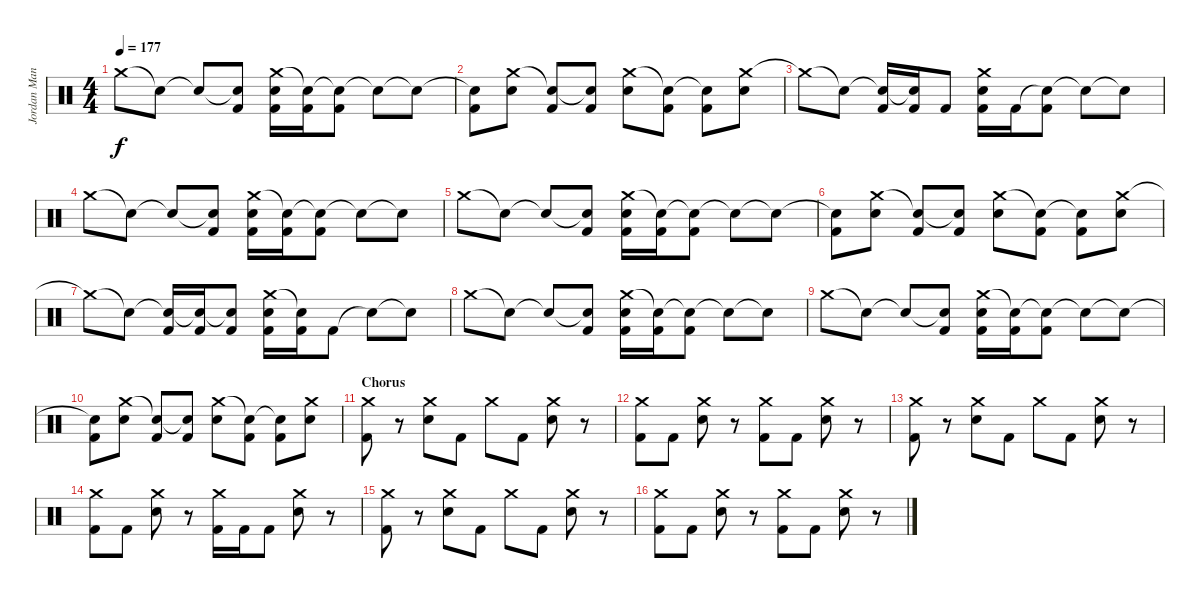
\track ("Jordan Mancino" "Jordan Man") {instrument percussion}
\staff {score}
\articulation defaults
\ts (4 4)
\tempo 177
\clef neutral
\ks c "Crash medium (hit)".8{dy f} "Snare (hit)"{t}.8 "Snare (hit)"{t}.8
("Snare (hit)"{t} "Kick (hit) 2").8 ("Crash medium (hit)" "Electric Snare (hit)" "Kick (hit) 2").16 ("Snare (hit)"{t} "Kick (hit) 2").16 ("Snare (hit)"{t} "Kick (hit) 2").8 "Snare (hit)"{t}.8 "Snare (hit)"{t}.8 |
("Snare (hit)"{t} "Kick (hit) 2").8 ("Crash medium (hit)" "Electric Snare (hit)").8 ("Snare (hit)"{t} "Kick (hit) 2").8 ("Snare (hit)"{t} "Kick (hit) 2").8 ("Crash medium (hit)" "Electric Snare (hit)").8 ("Snare (hit)"{t} "Kick (hit) 2").8 ("Snare (hit)"{t} "Kick (hit) 2").8 ("Crash medium (hit)" "Electric Snare (hit)").8 |
"Crash medium (hit)"{t}.8 "Snare (hit)"{t}.8 ("Snare (hit)"{t} "Kick (hit) 2").16 ("Snare (hit)"{t} "Kick (hit) 2").16 "Kick (hit) 2".8 ("Crash medium (hit)" "Electric Snare (hit)" "Kick (hit) 2").16 "Kick (hit) 2".16 ("Snare (hit)"{t} "Kick (hit) 2").8 "Snare (hit)"{t}.8 "Snare (hit)"{t}.8 |
"Crash medium (hit)".8 "Snare (hit)"{t}.8 "Snare (hit)"{t}.8 ("Snare (hit)"{t} "Kick (hit) 2").8 ("Crash medium (hit)" "Electric Snare (hit)" "Kick (hit) 2").16 ("Snare (hit)"{t} "Kick (hit) 2").16 ("Snare (hit)"{t} "Kick (hit) 2").8 "Snare (hit)"{t}.8 "Snare (hit)"{t}.8 |
"Crash medium (hit)".8 "Snare (hit)"{t}.8 "Snare (hit)"{t}.8 ("Snare (hit)"{t} "Kick (hit) 2").8 ("Crash medium (hit)" "Electric Snare (hit)" "Kick (hit) 2").16 ("Snare (hit)"{t} "Kick (hit) 2").16 ("Snare (hit)"{t} "Kick (hit) 2").8 "Snare (hit)"{t}.8 "Snare (hit)"{t}.8 |
("Snare (hit)"{t} "Kick (hit) 2").8 ("Crash medium (hit)" "Electric Snare (hit)").8 ("Snare (hit)"{t} "Kick (hit) 2").8 ("Snare (hit)"{t} "Kick (hit) 2").8 ("Crash medium (hit)" "Electric Snare (hit)").8 ("Snare (hit)"{t} "Kick (hit) 2").8 ("Snare (hit)"{t} "Kick (hit) 2").8 ("Crash medium (hit)" "Electric Snare (hit)").8 |
"Crash medium (hit)"{t}.8 "Snare (hit)"{t}.8 ("Snare (hit)"{t} "Kick (hit) 2").16 ("Snare (hit)"{t} "Kick (hit) 2").16 ("Snare (hit)"{t} "Kick (hit) 2").8 ("Crash medium (hit)" "Electric Snare (hit)" "Kick (hit) 2").16 ("Snare (hit)"{t} "Kick (hit) 2").16 "Kick (hit) 2".8 "Snare (hit)"{t}.8 "Snare (hit)"{t}.8 |
"Crash medium (hit)".8 "Snare (hit)"{t}.8 "Snare (hit)"{t}.8 ("Snare (hit)"{t} "Kick (hit) 2").8 ("Crash medium (hit)" "Electric Snare (hit)" "Kick (hit) 2").16 ("Snare (hit)"{t} "Kick (hit) 2").16 ("Snare (hit)"{t} "Kick (hit) 2").8 "Snare (hit)"{t}.8 "Snare (hit)"{t}.8 |
"Crash medium (hit)".8 "Snare (hit)"{t}.8 "Snare (hit)"{t}.8 ("Snare (hit)"{t} "Kick (hit) 2").8 ("Crash medium (hit)" "Electric Snare (hit)" "Kick (hit) 2").16 ("Snare (hit)"{t} "Kick (hit) 2").16 ("Snare (hit)"{t} "Kick (hit) 2").8 "Snare (hit)"{t}.8 "Snare (hit)"{t}.8 |
("Snare (hit)"{t} "Kick (hit) 2").8 ("Crash medium (hit)" "Electric Snare (hit)").8 ("Snare (hit)"{t} "Kick (hit) 2").8 ("Snare (hit)"{t} "Kick (hit) 2").8 ("Crash medium (hit)" "Electric Snare (hit)").8 ("Snare (hit)"{t} "Kick (hit) 2").8 ("Snare (hit)"{t} "Kick (hit) 2").8 ("Crash medium (hit)" "Electric Snare (hit)").8 |
\section ("" "Chorus")
("Crash medium (hit)" "Kick (hit) 2").8 r.8 ("Crash medium (hit)" "Electric Snare (hit)").8 "Kick (hit) 2".8 "Crash medium (hit)".8 "Kick (hit) 2".8 ("Crash medium (hit)" "Electric Snare (hit)").8 r.8 |
("Crash medium (hit)" "Kick (hit) 2").8 "Kick (hit) 2".8 ("Crash medium (hit)" "Electric Snare (hit)").8 r.8 ("Crash medium (hit)" "Kick (hit) 2").8 "Kick (hit) 2".8 ("Crash medium (hit)" "Electric Snare (hit)").8 r.8 |
("Crash medium (hit)" "Kick (hit) 2").8 r.8 ("Crash medium (hit)" "Electric Snare (hit)").8 "Kick (hit) 2".8 "Crash medium (hit)".8 "Kick (hit) 2".8 ("Crash medium (hit)" "Electric Snare (hit)").8 r.8 |
("Crash medium (hit)" "Kick (hit) 2").8 "Kick (hit) 2".8 ("Crash medium (hit)" "Electric Snare (hit)").8 r.8 ("Crash medium (hit)" "Kick (hit) 2").16 "Kick (hit) 2".16 "Kick (hit) 2".8 ("Crash medium (hit)" "Electric Snare (hit)").8 r.8 |
("Crash medium (hit)" "Kick (hit) 2").8 r.8 ("Crash medium (hit)" "Electric Snare (hit)").8 "Kick (hit) 2".8 "Crash medium (hit)".8 "Kick (hit) 2".8 ("Crash medium (hit)" "Electric Snare (hit)").8 r.8 |
("Crash medium (hit)" "Kick (hit) 2").8 "Kick (hit) 2".8 ("Crash medium (hit)" "Electric Snare (hit)").8 r.8 ("Crash medium (hit)" "Kick (hit) 2").8 "Kick (hit) 2".8 ("Crash medium (hit)" "Electric Snare (hit)").8 r.8
